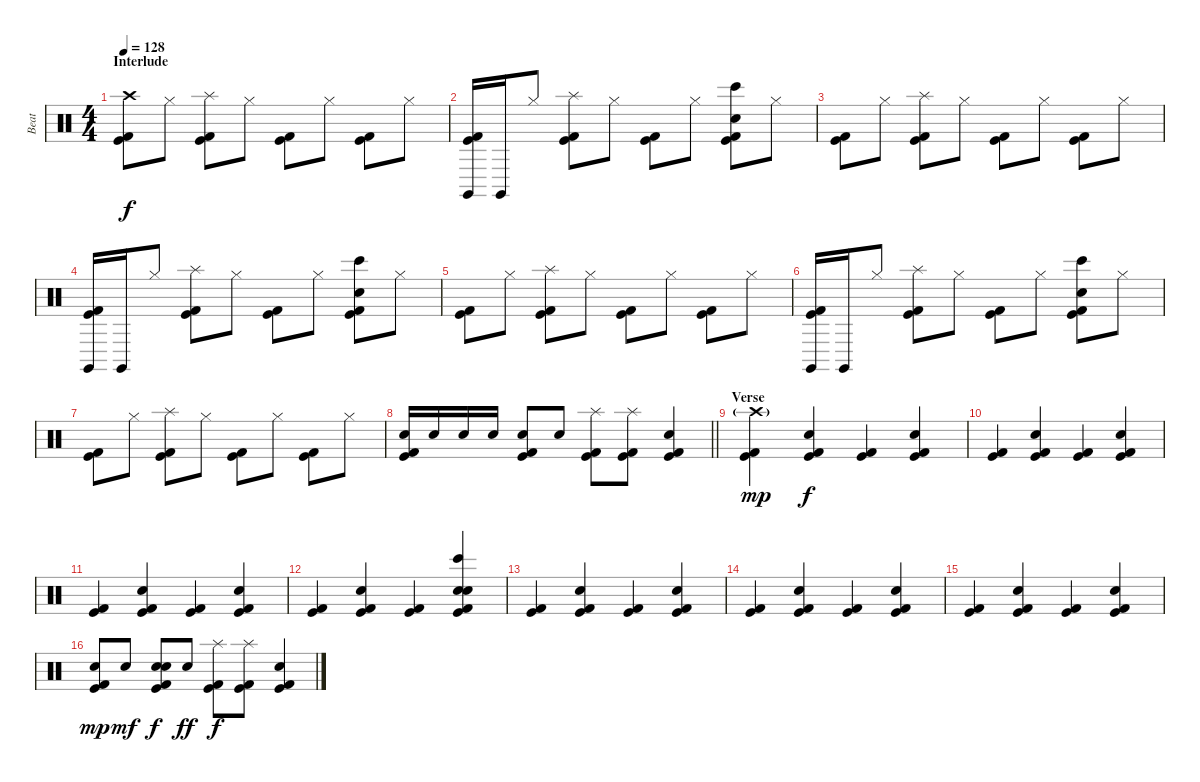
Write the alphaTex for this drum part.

\track ("Beat" "Beat") {instrument percussion}
\staff {score}
\articulation defaults
\ts (4 4)
\section ("" "Interlude")
\tempo 128
\clef neutral
\ks c
("Crash high (hit)" "Kick (hit) 2" "Kick (hit)").8{dy f} "Hi-Hat (closed)".8 ("Splash (hit)" "Kick (hit) 2" "Kick (hit)").8 "Hi-Hat (closed)".8 ("Kick (hit) 2" "Kick (hit)").8 "Hi-Hat (closed)".8 ("Kick (hit) 2" "Kick (hit)").8 "Hi-Hat (closed)".8 |
("Claves (hit)" "Kick (hit) 2" "Kick (hit)").16 "Claves (hit)".16 "Hi-Hat (closed)".8 ("Splash (hit)" "Kick (hit) 2" "Kick (hit)").8 "Hi-Hat (closed)".8 ("Kick (hit) 2" "Kick (hit)").8 "Hi-Hat (closed)".8 ("Bongo High (hit)" "Snare (hit) 2" "Kick (hit) 2" "Kick (hit)").8 "Hi-Hat (closed)".8 |
("Kick (hit) 2" "Kick (hit)").8 "Hi-Hat (closed)".8 ("Splash (hit)" "Kick (hit) 2" "Kick (hit)").8 "Hi-Hat (closed)".8 ("Kick (hit) 2" "Kick (hit)").8 "Hi-Hat (closed)".8 ("Kick (hit) 2" "Kick (hit)").8 "Hi-Hat (closed)".8 |
("Claves (hit)" "Kick (hit) 2" "Kick (hit)").16 "Claves (hit)".16 "Hi-Hat (closed)".8 ("Splash (hit)" "Kick (hit) 2" "Kick (hit)").8 "Hi-Hat (closed)".8 ("Kick (hit) 2" "Kick (hit)").8 "Hi-Hat (closed)".8 ("Bongo High (hit)" "Snare (hit) 2" "Kick (hit) 2" "Kick (hit)").8 "Hi-Hat (closed)".8 |
("Kick (hit) 2" "Kick (hit)").8 "Hi-Hat (closed)".8 ("Splash (hit)" "Kick (hit) 2" "Kick (hit)").8 "Hi-Hat (closed)".8 ("Kick (hit) 2" "Kick (hit)").8 "Hi-Hat (closed)".8 ("Kick (hit) 2" "Kick (hit)").8 "Hi-Hat (closed)".8 |
("Claves (hit)" "Kick (hit) 2" "Kick (hit)").16 "Claves (hit)".16 "Hi-Hat (closed)".8 ("Splash (hit)" "Kick (hit) 2" "Kick (hit)").8 "Hi-Hat (closed)".8 ("Kick (hit) 2" "Kick (hit)").8 "Hi-Hat (closed)".8 ("Bongo High (hit)" "Snare (hit) 2" "Kick (hit) 2" "Kick (hit)").8 "Hi-Hat (closed)".8 |
("Kick (hit) 2" "Kick (hit)").8 "Hi-Hat (closed)".8 ("Splash (hit)" "Kick (hit) 2" "Kick (hit)").8 "Hi-Hat (closed)".8 ("Kick (hit) 2" "Kick (hit)").8 "Hi-Hat (closed)".8 ("Kick (hit) 2" "Kick (hit)").8 "Hi-Hat (closed)".8 |
\barLineRight lightlight
("Electric Snare (hit)" "Kick (hit) 2" "Kick (hit)").16 "Electric Snare (hit)".16 "Electric Snare (hit)".16 "Electric Snare (hit)".16 ("Electric Snare (hit)" "Kick (hit) 2" "Kick (hit)").8 "Electric Snare (hit)".8 ("Splash (hit)" "Kick (hit) 2" "Kick (hit)").8 ("Splash (hit)" "Kick (hit) 2" "Kick (hit)").8 ("Snare (hit) 2" "Kick (hit) 2" "Kick (hit)").4 |
\section ("" "Verse")
("Crash high (hit)"{g} "Kick (hit) 2" "Kick (hit)").4{dy mp} ("Hand Clap (hit)" "Kick (hit) 2" "Kick (hit)").4{dy f} ("Kick (hit) 2" "Kick (hit)").4 ("Hand Clap (hit)" "Kick (hit) 2" "Kick (hit)").4 |
("Kick (hit) 2" "Kick (hit)").4 ("Hand Clap (hit)" "Kick (hit) 2" "Kick (hit)").4 ("Kick (hit) 2" "Kick (hit)").4 ("Hand Clap (hit)" "Kick (hit) 2" "Kick (hit)").4 |
("Kick (hit) 2" "Kick (hit)").4 ("Hand Clap (hit)" "Kick (hit) 2" "Kick (hit)").4 ("Kick (hit) 2" "Kick (hit)").4 ("Hand Clap (hit)" "Kick (hit) 2" "Kick (hit)").4 |
("Kick (hit) 2" "Kick (hit)").4 ("Hand Clap (hit)" "Kick (hit) 2" "Kick (hit)").4 ("Kick (hit) 2" "Kick (hit)").4 ("Hand Clap (hit)" "Snare (hit) 2" "Bongo High (hit)" "Kick (hit) 2" "Kick (hit)").4 |
("Kick (hit) 2" "Kick (hit)").4 ("Hand Clap (hit)" "Kick (hit) 2" "Kick (hit)").4 ("Kick (hit) 2" "Kick (hit)").4 ("Hand Clap (hit)" "Kick (hit) 2" "Kick (hit)").4 |
("Kick (hit) 2" "Kick (hit)").4 ("Hand Clap (hit)" "Kick (hit) 2" "Kick (hit)").4 ("Kick (hit) 2" "Kick (hit)").4 ("Hand Clap (hit)" "Kick (hit) 2" "Kick (hit)").4 |
("Kick (hit) 2" "Kick (hit)").4 ("Hand Clap (hit)" "Kick (hit) 2" "Kick (hit)").4 ("Kick (hit) 2" "Kick (hit)").4 ("Hand Clap (hit)" "Kick (hit) 2" "Kick (hit)").4 |
("Electric Snare (hit)" "Kick (hit) 2" "Kick (hit)").8{dy mp} "Electric Snare (hit)".8{dy mf} ("Hand Clap (hit)" "Electric Snare (hit)" "Kick (hit) 2" "Kick (hit)").8{dy f} "Electric Snare (hit)".8{dy ff} ("Splash (hit)" "Kick (hit) 2" "Kick (hit)").8{dy f} ("Splash (hit)" "Kick (hit) 2" "Kick (hit)").8 ("Snare (hit) 2" "Kick (hit) 2" "Kick (hit)").4
